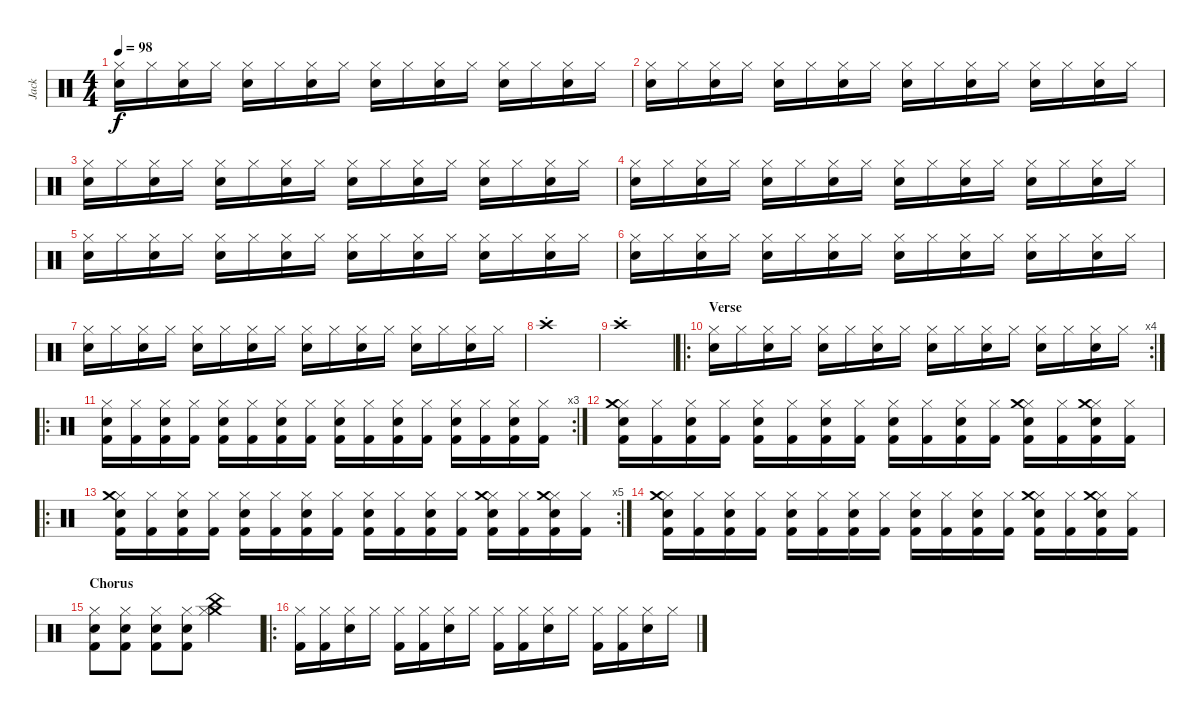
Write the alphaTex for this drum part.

\track ("Jack" "Jack") {instrument percussion}
\staff {score}
\articulation defaults
\ts (4 4)
\tempo 98
\clef neutral
\ks c
("Hi-Hat (closed)" "Snare (hit) 2").16{dy f} "Hi-Hat (closed)".16 ("Hi-Hat (closed)" "Snare (hit) 2").16 "Hi-Hat (closed)".16 ("Hi-Hat (closed)" "Snare (hit) 2").16 "Hi-Hat (closed)".16 ("Hi-Hat (closed)" "Snare (hit) 2").16 "Hi-Hat (closed)".16 ("Hi-Hat (closed)" "Snare (hit) 2").16 "Hi-Hat (closed)".16 ("Hi-Hat (closed)" "Snare (hit) 2").16 "Hi-Hat (closed)".16 ("Hi-Hat (closed)" "Snare (hit) 2").16 "Hi-Hat (closed)".16 ("Hi-Hat (closed)" "Snare (hit) 2").16 "Hi-Hat (closed)".16 |
("Hi-Hat (closed)" "Snare (hit) 2").16 "Hi-Hat (closed)".16 ("Hi-Hat (closed)" "Snare (hit) 2").16 "Hi-Hat (closed)".16 ("Hi-Hat (closed)" "Snare (hit) 2").16 "Hi-Hat (closed)".16 ("Hi-Hat (closed)" "Snare (hit) 2").16 "Hi-Hat (closed)".16 ("Hi-Hat (closed)" "Snare (hit) 2").16 "Hi-Hat (closed)".16 ("Hi-Hat (closed)" "Snare (hit) 2").16 "Hi-Hat (closed)".16 ("Hi-Hat (closed)" "Snare (hit) 2").16 "Hi-Hat (closed)".16 ("Hi-Hat (closed)" "Snare (hit) 2").16 "Hi-Hat (closed)".16 |
("Hi-Hat (closed)" "Snare (hit) 2").16 "Hi-Hat (closed)".16 ("Hi-Hat (closed)" "Snare (hit) 2").16 "Hi-Hat (closed)".16 ("Hi-Hat (closed)" "Snare (hit) 2").16 "Hi-Hat (closed)".16 ("Hi-Hat (closed)" "Snare (hit) 2").16 "Hi-Hat (closed)".16 ("Hi-Hat (closed)" "Snare (hit) 2").16 "Hi-Hat (closed)".16 ("Hi-Hat (closed)" "Snare (hit) 2").16 "Hi-Hat (closed)".16 ("Hi-Hat (closed)" "Snare (hit) 2").16 "Hi-Hat (closed)".16 ("Hi-Hat (closed)" "Snare (hit) 2").16 "Hi-Hat (closed)".16 |
("Hi-Hat (closed)" "Snare (hit) 2").16 "Hi-Hat (closed)".16 ("Hi-Hat (closed)" "Snare (hit) 2").16 "Hi-Hat (closed)".16 ("Hi-Hat (closed)" "Snare (hit) 2").16 "Hi-Hat (closed)".16 ("Hi-Hat (closed)" "Snare (hit) 2").16 "Hi-Hat (closed)".16 ("Hi-Hat (closed)" "Snare (hit) 2").16 "Hi-Hat (closed)".16 ("Hi-Hat (closed)" "Snare (hit) 2").16 "Hi-Hat (closed)".16 ("Hi-Hat (closed)" "Snare (hit) 2").16 "Hi-Hat (closed)".16 ("Hi-Hat (closed)" "Snare (hit) 2").16 "Hi-Hat (closed)".16 |
("Hi-Hat (closed)" "Snare (hit) 2").16 "Hi-Hat (closed)".16 ("Hi-Hat (closed)" "Snare (hit) 2").16 "Hi-Hat (closed)".16 ("Hi-Hat (closed)" "Snare (hit) 2").16 "Hi-Hat (closed)".16 ("Hi-Hat (closed)" "Snare (hit) 2").16 "Hi-Hat (closed)".16 ("Hi-Hat (closed)" "Snare (hit) 2").16 "Hi-Hat (closed)".16 ("Hi-Hat (closed)" "Snare (hit) 2").16 "Hi-Hat (closed)".16 ("Hi-Hat (closed)" "Snare (hit) 2").16 "Hi-Hat (closed)".16 ("Hi-Hat (closed)" "Snare (hit) 2").16 "Hi-Hat (closed)".16 |
("Hi-Hat (closed)" "Snare (hit) 2").16 "Hi-Hat (closed)".16 ("Hi-Hat (closed)" "Snare (hit) 2").16 "Hi-Hat (closed)".16 ("Hi-Hat (closed)" "Snare (hit) 2").16 "Hi-Hat (closed)".16 ("Hi-Hat (closed)" "Snare (hit) 2").16 "Hi-Hat (closed)".16 ("Hi-Hat (closed)" "Snare (hit) 2").16 "Hi-Hat (closed)".16 ("Hi-Hat (closed)" "Snare (hit) 2").16 "Hi-Hat (closed)".16 ("Hi-Hat (closed)" "Snare (hit) 2").16 "Hi-Hat (closed)".16 ("Hi-Hat (closed)" "Snare (hit) 2").16 "Hi-Hat (closed)".16 |
("Hi-Hat (closed)" "Snare (hit) 2").16 "Hi-Hat (closed)".16 ("Hi-Hat (closed)" "Snare (hit) 2").16 "Hi-Hat (closed)".16 ("Hi-Hat (closed)" "Snare (hit) 2").16 "Hi-Hat (closed)".16 ("Hi-Hat (closed)" "Snare (hit) 2").16 "Hi-Hat (closed)".16 ("Hi-Hat (closed)" "Snare (hit) 2").16 "Hi-Hat (closed)".16 ("Hi-Hat (closed)" "Snare (hit) 2").16 "Hi-Hat (closed)".16 ("Hi-Hat (closed)" "Snare (hit) 2").16 "Hi-Hat (closed)".16 ("Hi-Hat (closed)" "Snare (hit) 2").16 "Hi-Hat (closed)".16 |
"Crash high (hit)"{st}.1 |
"Crash high (hit)"{st}.1 |
\ro
\rc 4
\section ("" "Verse")
("Hi-Hat (closed)" "Snare (hit) 2").16 "Hi-Hat (closed)".16 ("Hi-Hat (closed)" "Snare (hit) 2").16 "Hi-Hat (closed)".16 ("Hi-Hat (closed)" "Snare (hit) 2").16 "Hi-Hat (closed)".16 ("Hi-Hat (closed)" "Snare (hit) 2").16 "Hi-Hat (closed)".16 ("Hi-Hat (closed)" "Snare (hit) 2").16 "Hi-Hat (closed)".16 ("Hi-Hat (closed)" "Snare (hit) 2").16 "Hi-Hat (closed)".16 ("Hi-Hat (closed)" "Snare (hit) 2").16 "Hi-Hat (closed)".16 ("Hi-Hat (closed)" "Snare (hit) 2").16 "Hi-Hat (closed)".16 |
\ro
\rc 3
("Hi-Hat (closed)" "Snare (hit) 2" "Kick (hit) 2").16 ("Hi-Hat (closed)" "Kick (hit) 2").16 ("Hi-Hat (closed)" "Snare (hit) 2" "Kick (hit) 2").16 ("Hi-Hat (closed)" "Kick (hit) 2").16 ("Hi-Hat (closed)" "Snare (hit) 2" "Kick (hit) 2").16 ("Hi-Hat (closed)" "Kick (hit) 2").16 ("Hi-Hat (closed)" "Snare (hit) 2" "Kick (hit) 2").16 ("Hi-Hat (closed)" "Kick (hit) 2").16 ("Hi-Hat (closed)" "Snare (hit) 2" "Kick (hit) 2").16 ("Hi-Hat (closed)" "Kick (hit) 2").16 ("Hi-Hat (closed)" "Snare (hit) 2" "Kick (hit) 2").16 ("Hi-Hat (closed)" "Kick (hit) 2").16 ("Hi-Hat (closed)" "Snare (hit) 2" "Kick (hit) 2").16 ("Hi-Hat (closed)" "Kick (hit) 2").16 ("Hi-Hat (closed)" "Snare (hit) 2" "Kick (hit) 2").16 ("Hi-Hat (closed)" "Kick (hit) 2").16 |
("Hi-Hat (closed)" "Snare (hit) 2" "Crash medium (hit)" "Kick (hit) 2").16 ("Hi-Hat (closed)" "Kick (hit) 2").16 ("Hi-Hat (closed)" "Snare (hit) 2" "Kick (hit) 2").16 ("Hi-Hat (closed)" "Kick (hit) 2").16 ("Hi-Hat (closed)" "Snare (hit) 2" "Kick (hit) 2").16 ("Hi-Hat (closed)" "Kick (hit) 2").16 ("Hi-Hat (closed)" "Snare (hit) 2" "Kick (hit) 2").16 ("Hi-Hat (closed)" "Kick (hit) 2").16 ("Hi-Hat (closed)" "Snare (hit) 2" "Kick (hit) 2").16 ("Hi-Hat (closed)" "Kick (hit) 2").16 ("Hi-Hat (closed)" "Snare (hit) 2" "Kick (hit) 2").16 ("Hi-Hat (closed)" "Kick (hit) 2").16 ("Hi-Hat (closed)" "Snare (hit) 2" "Crash medium (hit)" "Kick (hit) 2").16 ("Hi-Hat (closed)" "Kick (hit) 2").16 ("Hi-Hat (closed)" "Snare (hit) 2" "Crash medium (hit)" "Kick (hit) 2").16 ("Hi-Hat (closed)" "Kick (hit) 2").16 |
\ro
\rc 5
("Hi-Hat (closed)" "Snare (hit) 2" "Crash medium (hit)" "Kick (hit) 2").16 ("Hi-Hat (closed)" "Kick (hit) 2").16 ("Hi-Hat (closed)" "Snare (hit) 2" "Kick (hit) 2").16 ("Hi-Hat (closed)" "Kick (hit) 2").16 ("Hi-Hat (closed)" "Snare (hit) 2" "Kick (hit) 2").16 ("Hi-Hat (closed)" "Kick (hit) 2").16 ("Hi-Hat (closed)" "Snare (hit) 2" "Kick (hit) 2").16 ("Hi-Hat (closed)" "Kick (hit) 2").16 ("Hi-Hat (closed)" "Snare (hit) 2" "Kick (hit) 2").16 ("Hi-Hat (closed)" "Kick (hit) 2").16 ("Hi-Hat (closed)" "Snare (hit) 2" "Kick (hit) 2").16 ("Hi-Hat (closed)" "Kick (hit) 2").16 ("Hi-Hat (closed)" "Snare (hit) 2" "Crash medium (hit)" "Kick (hit) 2").16 ("Hi-Hat (closed)" "Kick (hit) 2").16 ("Hi-Hat (closed)" "Snare (hit) 2" "Crash medium (hit)" "Kick (hit) 2").16 ("Hi-Hat (closed)" "Kick (hit) 2").16 |
("Hi-Hat (closed)" "Snare (hit) 2" "Crash medium (hit)" "Kick (hit) 2").16 ("Hi-Hat (closed)" "Kick (hit) 2").16 ("Hi-Hat (closed)" "Snare (hit) 2" "Kick (hit) 2").16 ("Hi-Hat (closed)" "Kick (hit) 2").16 ("Hi-Hat (closed)" "Snare (hit) 2" "Kick (hit) 2").16 ("Hi-Hat (closed)" "Kick (hit) 2").16 ("Hi-Hat (closed)" "Snare (hit) 2" "Kick (hit) 2").16 ("Hi-Hat (closed)" "Kick (hit) 2").16 ("Hi-Hat (closed)" "Snare (hit) 2" "Kick (hit) 2").16 ("Hi-Hat (closed)" "Kick (hit) 2").16 ("Hi-Hat (closed)" "Snare (hit) 2" "Kick (hit) 2").16 ("Hi-Hat (closed)" "Kick (hit) 2").16 ("Hi-Hat (closed)" "Snare (hit) 2" "Crash medium (hit)" "Kick (hit) 2").16 ("Hi-Hat (closed)" "Kick (hit) 2").16 ("Hi-Hat (closed)" "Snare (hit) 2" "Crash medium (hit)" "Kick (hit) 2").16 ("Hi-Hat (closed)" "Kick (hit) 2").16 |
\section ("" "Chorus")
("Hi-Hat (closed)" "Snare (hit) 2" "Kick (hit) 2").8 ("Hi-Hat (closed)" "Snare (hit) 2" "Kick (hit) 2").8 ("Hi-Hat (closed)" "Snare (hit) 2" "Kick (hit) 2").8 ("Hi-Hat (closed)" "Snare (hit) 2" "Kick (hit) 2").8 ("Crash medium (hit)" "China (hit)" "Hi-Hat (closed)").2 |
\ro
("Hi-Hat (closed)" "Kick (hit) 2").16 ("Hi-Hat (closed)" "Kick (hit) 2").16 ("Hi-Hat (closed)" "Snare (hit) 2").16 "Hi-Hat (closed)".16 ("Hi-Hat (closed)" "Kick (hit) 2").16 ("Hi-Hat (closed)" "Kick (hit) 2").16 ("Hi-Hat (closed)" "Snare (hit) 2").16 "Hi-Hat (closed)".16 ("Hi-Hat (closed)" "Kick (hit) 2").16 ("Hi-Hat (closed)" "Kick (hit) 2").16 ("Hi-Hat (closed)" "Snare (hit) 2").16 "Hi-Hat (closed)".16 ("Hi-Hat (closed)" "Kick (hit) 2").16 ("Hi-Hat (closed)" "Kick (hit) 2").16 ("Hi-Hat (closed)" "Snare (hit) 2").16 "Hi-Hat (closed)".16
